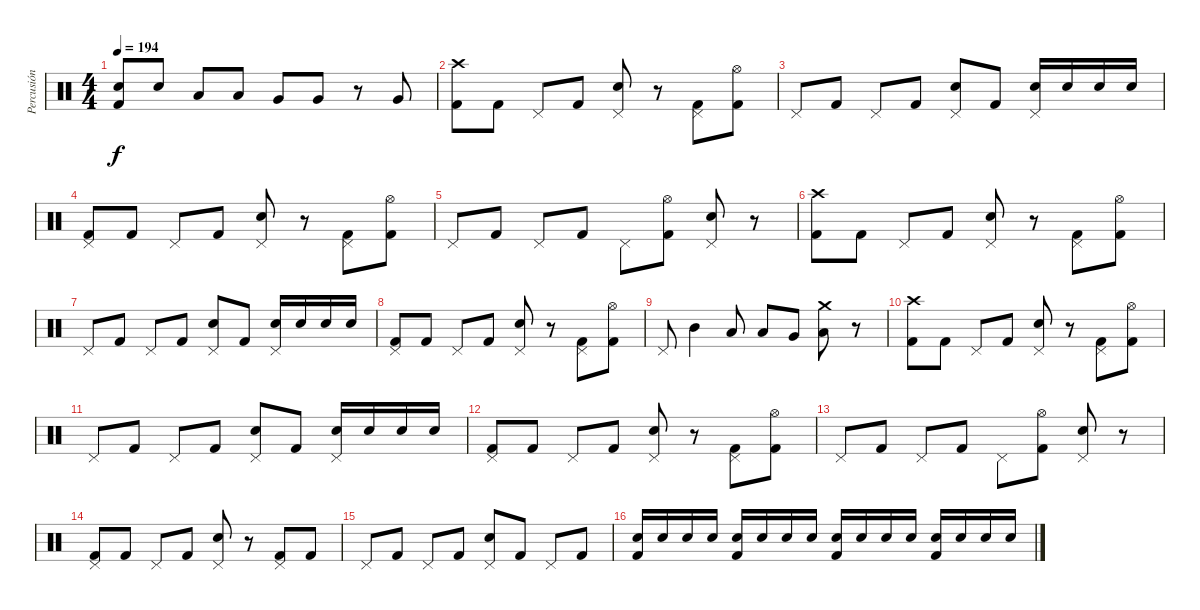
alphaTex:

\track ("Percusión" "Percusión") {instrument percussion}
\staff {score}
\articulation defaults
\ts (4 4)
\tempo 194
\clef neutral
\ks c
("Kick (hit) 2" "Snare (hit) 2").8{dy f} "Snare (hit) 2".8 "Low Tom (hit)".8 "Low Tom (hit)".8 "Very Low Tom (hit)".8 "Very Low Tom (hit)".8 r.8 "Very Low Tom (hit)".8 |
("Kick (hit) 2" "Crash high (hit)").8 "Kick (hit) 2".8 "Pedal Hi-Hat (hit)".8 "Kick (hit) 2".8 ("Snare (hit) 2" "Pedal Hi-Hat (hit)").8 r.8 ("Kick (hit) 2" "Pedal Hi-Hat (hit)").8 ("Kick (hit) 2" "Hi-Hat (open)").8 |
"Pedal Hi-Hat (hit)".8 "Kick (hit) 2".8 "Pedal Hi-Hat (hit)".8 "Kick (hit) 2".8 ("Snare (hit) 2" "Pedal Hi-Hat (hit)").8 "Kick (hit) 2".8 ("Snare (hit) 2" "Pedal Hi-Hat (hit)").16 "Snare (hit) 2".16 "Snare (hit) 2".16 "Snare (hit) 2".16 |
("Kick (hit) 2" "Pedal Hi-Hat (hit)").8 "Kick (hit) 2".8 "Pedal Hi-Hat (hit)".8 "Kick (hit) 2".8 ("Snare (hit) 2" "Pedal Hi-Hat (hit)").8 r.8 ("Kick (hit) 2" "Pedal Hi-Hat (hit)").8 ("Kick (hit) 2" "Hi-Hat (open)").8 |
"Pedal Hi-Hat (hit)".8 "Kick (hit) 2".8 "Pedal Hi-Hat (hit)".8 "Kick (hit) 2".8 "Pedal Hi-Hat (hit)".8 ("Kick (hit) 2" "Hi-Hat (open)").8 ("Snare (hit) 2" "Pedal Hi-Hat (hit)").8 r.8 |
("Kick (hit) 2" "Crash high (hit)").8 "Kick (hit) 2".8 "Pedal Hi-Hat (hit)".8 "Kick (hit) 2".8 ("Snare (hit) 2" "Pedal Hi-Hat (hit)").8 r.8 ("Kick (hit) 2" "Pedal Hi-Hat (hit)").8 ("Kick (hit) 2" "Hi-Hat (open)").8 |
"Pedal Hi-Hat (hit)".8 "Kick (hit) 2".8 "Pedal Hi-Hat (hit)".8 "Kick (hit) 2".8 ("Snare (hit) 2" "Pedal Hi-Hat (hit)").8 "Kick (hit) 2".8 ("Snare (hit) 2" "Pedal Hi-Hat (hit)").16 "Snare (hit) 2".16 "Snare (hit) 2".16 "Snare (hit) 2".16 |
("Kick (hit) 2" "Pedal Hi-Hat (hit)").8 "Kick (hit) 2".8 "Pedal Hi-Hat (hit)".8 "Kick (hit) 2".8 ("Snare (hit) 2" "Pedal Hi-Hat (hit)").8 r.8 ("Kick (hit) 2" "Pedal Hi-Hat (hit)").8 ("Kick (hit) 2" "Hi-Hat (open)").8 |
"Pedal Hi-Hat (hit)".8 "Mid Tom (hit)".4 "Low Tom (hit)".8 "Low Tom (hit)".8 "Very Low Tom (hit)".8 ("Low Floor Tom (hit)" "Crash medium (hit)").8 r.8 |
("Kick (hit) 2" "Crash high (hit)").8 "Kick (hit) 2".8 "Pedal Hi-Hat (hit)".8 "Kick (hit) 2".8 ("Snare (hit) 2" "Pedal Hi-Hat (hit)").8 r.8 ("Kick (hit) 2" "Pedal Hi-Hat (hit)").8 ("Kick (hit) 2" "Hi-Hat (open)").8 |
"Pedal Hi-Hat (hit)".8 "Kick (hit) 2".8 "Pedal Hi-Hat (hit)".8 "Kick (hit) 2".8 ("Snare (hit) 2" "Pedal Hi-Hat (hit)").8 "Kick (hit) 2".8 ("Snare (hit) 2" "Pedal Hi-Hat (hit)").16 "Snare (hit) 2".16 "Snare (hit) 2".16 "Snare (hit) 2".16 |
("Kick (hit) 2" "Pedal Hi-Hat (hit)").8 "Kick (hit) 2".8 "Pedal Hi-Hat (hit)".8 "Kick (hit) 2".8 ("Snare (hit) 2" "Pedal Hi-Hat (hit)").8 r.8 ("Kick (hit) 2" "Pedal Hi-Hat (hit)").8 ("Kick (hit) 2" "Hi-Hat (open)").8 |
"Pedal Hi-Hat (hit)".8 "Kick (hit) 2".8 "Pedal Hi-Hat (hit)".8 "Kick (hit) 2".8 "Pedal Hi-Hat (hit)".8 ("Kick (hit) 2" "Hi-Hat (open)").8 ("Snare (hit) 2" "Pedal Hi-Hat (hit)").8 r.8 |
("Kick (hit) 2" "Pedal Hi-Hat (hit)").8 "Kick (hit) 2".8 "Pedal Hi-Hat (hit)".8 "Kick (hit) 2".8 ("Snare (hit) 2" "Pedal Hi-Hat (hit)").8 r.8 ("Kick (hit) 2" "Pedal Hi-Hat (hit)").8 "Kick (hit) 2".8 |
"Pedal Hi-Hat (hit)".8 "Kick (hit) 2".8 "Pedal Hi-Hat (hit)".8 "Kick (hit) 2".8 ("Snare (hit) 2" "Pedal Hi-Hat (hit)").8 "Kick (hit) 2".8 "Pedal Hi-Hat (hit)".8 "Kick (hit) 2".8 |
("Kick (hit) 2" "Snare (hit) 2").16 "Snare (hit) 2".16 "Snare (hit) 2".16 "Snare (hit) 2".16 ("Kick (hit) 2" "Snare (hit) 2").16 "Snare (hit) 2".16 "Snare (hit) 2".16 "Snare (hit) 2".16 ("Kick (hit) 2" "Snare (hit) 2").16 "Snare (hit) 2".16 "Snare (hit) 2".16 "Snare (hit) 2".16 ("Kick (hit) 2" "Snare (hit) 2").16 "Snare (hit) 2".16 "Snare (hit) 2".16 "Snare (hit) 2".16
